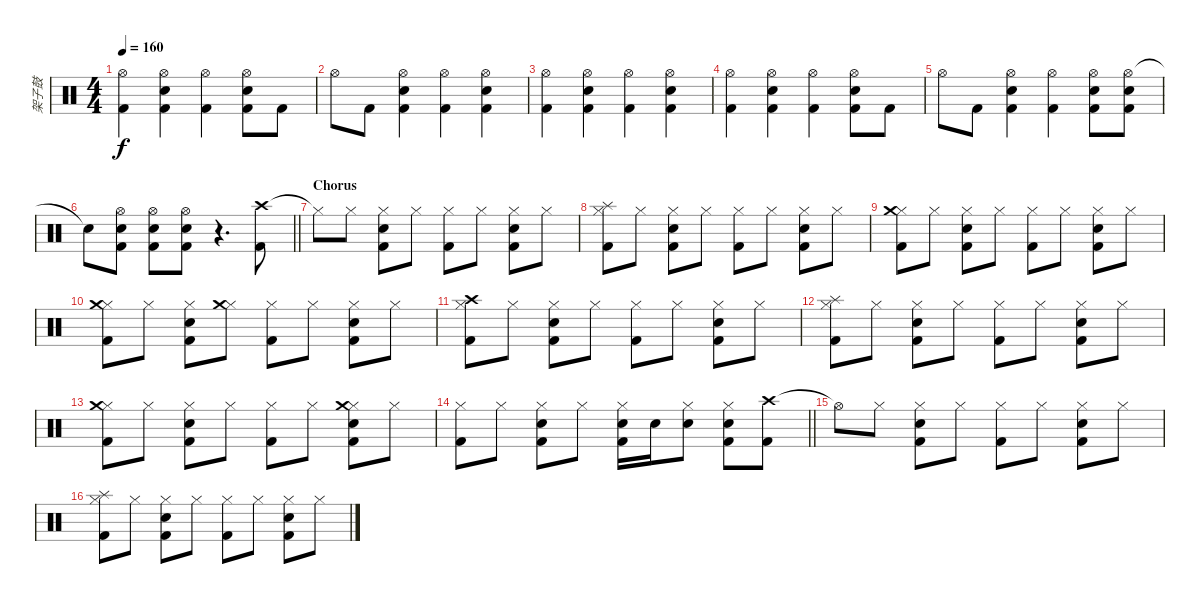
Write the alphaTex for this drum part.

\track ("架子鼓" "架子鼓") {instrument percussion}
\staff {score}
\articulation defaults
\ts (4 4)
\tempo 160
\clef neutral
\ks c
("Hi-Hat (open)" "Kick (hit) 2").4{dy f} ("Hi-Hat (open)" "Snare (hit) 2" "Kick (hit) 2").4 ("Hi-Hat (open)" "Kick (hit) 2").4 ("Hi-Hat (open)" "Snare (hit) 2" "Kick (hit) 2").8 "Kick (hit) 2".8 |
"Hi-Hat (open)".8 "Kick (hit) 2".8 ("Hi-Hat (open)" "Snare (hit) 2" "Kick (hit) 2").4 ("Hi-Hat (open)" "Kick (hit) 2").4 ("Hi-Hat (open)" "Snare (hit) 2" "Kick (hit) 2").4 |
("Hi-Hat (open)" "Kick (hit) 2").4 ("Hi-Hat (open)" "Snare (hit) 2" "Kick (hit) 2").4 ("Hi-Hat (open)" "Kick (hit) 2").4 ("Hi-Hat (open)" "Snare (hit) 2" "Kick (hit) 2").4 |
("Hi-Hat (open)" "Kick (hit) 2").4 ("Hi-Hat (open)" "Snare (hit) 2" "Kick (hit) 2").4 ("Hi-Hat (open)" "Kick (hit) 2").4 ("Hi-Hat (open)" "Snare (hit) 2" "Kick (hit) 2").8 "Kick (hit) 2".8 |
"Hi-Hat (open)".8 "Kick (hit) 2".8 ("Hi-Hat (open)" "Snare (hit) 2" "Kick (hit) 2").4 ("Hi-Hat (open)" "Kick (hit) 2").4 ("Hi-Hat (open)" "Snare (hit) 2" "Kick (hit) 2").8 ("Hi-Hat (open)" "Snare (hit) 2" "Kick (hit) 2").8 |
\barLineRight lightlight "Snare (hit)"{t}.8
("Hi-Hat (open)" "Snare (hit) 2" "Kick (hit) 2").8 ("Hi-Hat (open)" "Snare (hit) 2" "Kick (hit) 2").8 ("Hi-Hat (open)" "Snare (hit) 2" "Kick (hit) 2").8 r.4{d} ("Crash high (hit)" "Kick (hit) 2").8 |
\section ("" "Chorus")
"Hi-Hat (closed)"{t}.8 "Hi-Hat (closed)".8 ("Hi-Hat (closed)" "Snare (hit) 2" "Kick (hit) 2").8 "Hi-Hat (closed)".8 ("Hi-Hat (closed)" "Kick (hit) 2").8 "Hi-Hat (closed)".8 ("Hi-Hat (closed)" "Snare (hit) 2" "Kick (hit) 2").8 "Hi-Hat (closed)".8 |
("Hi-Hat (closed)" "Splash (hit)" "Kick (hit) 2").8 "Hi-Hat (closed)".8 ("Hi-Hat (closed)" "Snare (hit) 2" "Kick (hit) 2").8 "Hi-Hat (closed)".8 ("Hi-Hat (closed)" "Kick (hit) 2").8 "Hi-Hat (closed)".8 ("Hi-Hat (closed)" "Snare (hit) 2" "Kick (hit) 2").8 "Hi-Hat (closed)".8 |
("Hi-Hat (closed)" "Crash medium (hit)" "Kick (hit) 2").8 "Hi-Hat (closed)".8 ("Hi-Hat (closed)" "Snare (hit) 2" "Kick (hit) 2").8 "Hi-Hat (closed)".8 ("Hi-Hat (closed)" "Kick (hit) 2").8 "Hi-Hat (closed)".8 ("Hi-Hat (closed)" "Snare (hit) 2" "Kick (hit) 2").8 "Hi-Hat (closed)".8 |
("Hi-Hat (closed)" "Crash medium (hit)" "Kick (hit) 2").8 "Hi-Hat (closed)".8 ("Hi-Hat (closed)" "Snare (hit) 2" "Kick (hit) 2").8 ("Hi-Hat (closed)" "Crash medium (hit)").8 ("Hi-Hat (closed)" "Kick (hit) 2").8 "Hi-Hat (closed)".8 ("Hi-Hat (closed)" "Snare (hit) 2" "Kick (hit) 2").8 "Hi-Hat (closed)".8 |
("Hi-Hat (closed)" "Crash high (hit)" "Kick (hit) 2").8 "Hi-Hat (closed)".8 ("Hi-Hat (closed)" "Snare (hit) 2" "Kick (hit) 2").8 "Hi-Hat (closed)".8 ("Hi-Hat (closed)" "Kick (hit) 2").8 "Hi-Hat (closed)".8 ("Hi-Hat (closed)" "Snare (hit) 2" "Kick (hit) 2").8 "Hi-Hat (closed)".8 |
("Hi-Hat (closed)" "Splash (hit)" "Kick (hit) 2").8 "Hi-Hat (closed)".8 ("Hi-Hat (closed)" "Snare (hit) 2" "Kick (hit) 2").8 "Hi-Hat (closed)".8 ("Hi-Hat (closed)" "Kick (hit) 2").8 "Hi-Hat (closed)".8 ("Hi-Hat (closed)" "Snare (hit) 2" "Kick (hit) 2").8 "Hi-Hat (closed)".8 |
("Hi-Hat (closed)" "Crash medium (hit)" "Kick (hit) 2").8 "Hi-Hat (closed)".8 ("Hi-Hat (closed)" "Snare (hit) 2" "Kick (hit) 2").8 "Hi-Hat (closed)".8 ("Hi-Hat (closed)" "Kick (hit) 2").8 "Hi-Hat (closed)".8 ("Hi-Hat (closed)" "Snare (hit) 2" "Crash medium (hit)" "Kick (hit) 2").8 "Hi-Hat (closed)".8 |
\barLineRight lightlight
("Hi-Hat (closed)" "Kick (hit) 2").8 "Hi-Hat (closed)".8 ("Hi-Hat (closed)" "Snare (hit) 2" "Kick (hit) 2").8 "Hi-Hat (closed)".8 ("Hi-Hat (closed)" "Snare (hit) 2" "Kick (hit) 2").16 "Snare (hit) 2".16 ("Hi-Hat (closed)" "Snare (hit) 2").8 ("Hi-Hat (closed)" "Snare (hit) 2" "Kick (hit) 2").8 ("Crash high (hit)" "Kick (hit) 2").8 |
"Hi-Hat (open)"{t}.8 "Hi-Hat (closed)".8 ("Hi-Hat (closed)" "Snare (hit) 2" "Kick (hit) 2").8 "Hi-Hat (closed)".8 ("Hi-Hat (closed)" "Kick (hit) 2").8 "Hi-Hat (closed)".8 ("Hi-Hat (closed)" "Snare (hit) 2" "Kick (hit) 2").8 "Hi-Hat (closed)".8 |
("Hi-Hat (closed)" "Splash (hit)" "Kick (hit) 2").8 "Hi-Hat (closed)".8 ("Hi-Hat (closed)" "Snare (hit) 2" "Kick (hit) 2").8 "Hi-Hat (closed)".8 ("Hi-Hat (closed)" "Kick (hit) 2").8 "Hi-Hat (closed)".8 ("Hi-Hat (closed)" "Snare (hit) 2" "Kick (hit) 2").8 "Hi-Hat (closed)".8
